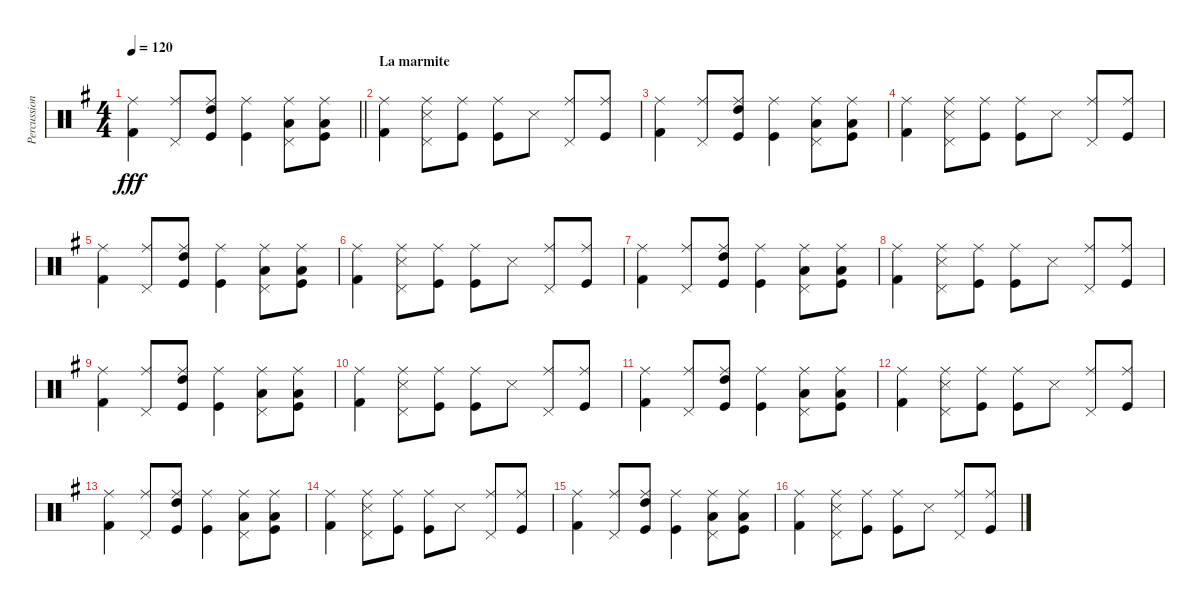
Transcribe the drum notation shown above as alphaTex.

\track ("Percussions" "Percussion") {instrument percussion}
\staff {score}
\articulation defaults
\ts (4 4)
\tempo 120
\clef neutral
\barLineRight lightlight
\ks g
("Ride (middle)" "Kick (hit) 2").4{dy fff} ("Ride (middle)" "Pedal Hi-Hat (hit)").8 ("Ride (middle)" "Kick (hit)" "High Tom (hit)").8 ("Ride (middle)" "Kick (hit)").4 ("Ride (middle)" "Low Tom (hit)" "Pedal Hi-Hat (hit)").8 ("Ride (middle)" "Kick (hit)" "Low Tom (hit)").8 |
\section ("" "La marmite")
("Ride (middle)" "Kick (hit) 2").4 ("Ride (middle)" "Pedal Hi-Hat (hit)" "Snare (side stick) 3").8 ("Ride (middle)" "Kick (hit)").8 ("Ride (middle)" "Kick (hit)").8 "Snare (side stick) 3".8 ("Ride (middle)" "Pedal Hi-Hat (hit)").8 ("Ride (middle)" "Kick (hit)").8 |
("Ride (middle)" "Kick (hit) 2").4 ("Ride (middle)" "Pedal Hi-Hat (hit)").8 ("Ride (middle)" "Kick (hit)" "High Tom (hit)").8 ("Ride (middle)" "Kick (hit)").4 ("Ride (middle)" "Low Tom (hit)" "Pedal Hi-Hat (hit)").8 ("Ride (middle)" "Kick (hit)" "Low Tom (hit)").8 |
("Ride (middle)" "Kick (hit) 2").4 ("Ride (middle)" "Pedal Hi-Hat (hit)" "Snare (side stick) 3").8 ("Ride (middle)" "Kick (hit)").8 ("Ride (middle)" "Kick (hit)").8 "Snare (side stick) 3".8 ("Ride (middle)" "Pedal Hi-Hat (hit)").8 ("Ride (middle)" "Kick (hit)").8 |
("Ride (middle)" "Kick (hit) 2").4 ("Ride (middle)" "Pedal Hi-Hat (hit)").8 ("Ride (middle)" "Kick (hit)" "High Tom (hit)").8 ("Ride (middle)" "Kick (hit)").4 ("Ride (middle)" "Low Tom (hit)" "Pedal Hi-Hat (hit)").8 ("Ride (middle)" "Kick (hit)" "Low Tom (hit)").8 |
("Ride (middle)" "Kick (hit) 2").4 ("Ride (middle)" "Pedal Hi-Hat (hit)" "Snare (side stick) 3").8 ("Ride (middle)" "Kick (hit)").8 ("Ride (middle)" "Kick (hit)").8 "Snare (side stick) 3".8 ("Ride (middle)" "Pedal Hi-Hat (hit)").8 ("Ride (middle)" "Kick (hit)").8 |
("Ride (middle)" "Kick (hit) 2").4 ("Ride (middle)" "Pedal Hi-Hat (hit)").8 ("Ride (middle)" "Kick (hit)" "High Tom (hit)").8 ("Ride (middle)" "Kick (hit)").4 ("Ride (middle)" "Low Tom (hit)" "Pedal Hi-Hat (hit)").8 ("Ride (middle)" "Kick (hit)" "Low Tom (hit)").8 |
("Ride (middle)" "Kick (hit) 2").4 ("Ride (middle)" "Pedal Hi-Hat (hit)" "Snare (side stick) 3").8 ("Ride (middle)" "Kick (hit)").8 ("Ride (middle)" "Kick (hit)").8 "Snare (side stick) 3".8 ("Ride (middle)" "Pedal Hi-Hat (hit)").8 ("Ride (middle)" "Kick (hit)").8 |
("Ride (middle)" "Kick (hit) 2").4 ("Ride (middle)" "Pedal Hi-Hat (hit)").8 ("Ride (middle)" "Kick (hit)" "High Tom (hit)").8 ("Ride (middle)" "Kick (hit)").4 ("Ride (middle)" "Low Tom (hit)" "Pedal Hi-Hat (hit)").8 ("Ride (middle)" "Kick (hit)" "Low Tom (hit)").8 |
("Ride (middle)" "Kick (hit) 2").4 ("Ride (middle)" "Pedal Hi-Hat (hit)" "Snare (side stick) 3").8 ("Ride (middle)" "Kick (hit)").8 ("Ride (middle)" "Kick (hit)").8 "Snare (side stick) 3".8 ("Ride (middle)" "Pedal Hi-Hat (hit)").8 ("Ride (middle)" "Kick (hit)").8 |
("Ride (middle)" "Kick (hit) 2").4 ("Ride (middle)" "Pedal Hi-Hat (hit)").8 ("Ride (middle)" "Kick (hit)" "High Tom (hit)").8 ("Ride (middle)" "Kick (hit)").4 ("Ride (middle)" "Low Tom (hit)" "Pedal Hi-Hat (hit)").8 ("Ride (middle)" "Kick (hit)" "Low Tom (hit)").8 |
("Ride (middle)" "Kick (hit) 2").4 ("Ride (middle)" "Pedal Hi-Hat (hit)" "Snare (side stick) 3").8 ("Ride (middle)" "Kick (hit)").8 ("Ride (middle)" "Kick (hit)").8 "Snare (side stick) 3".8 ("Ride (middle)" "Pedal Hi-Hat (hit)").8 ("Ride (middle)" "Kick (hit)").8 |
("Ride (middle)" "Kick (hit) 2").4 ("Ride (middle)" "Pedal Hi-Hat (hit)").8 ("Ride (middle)" "Kick (hit)" "High Tom (hit)").8 ("Ride (middle)" "Kick (hit)").4 ("Ride (middle)" "Low Tom (hit)" "Pedal Hi-Hat (hit)").8 ("Ride (middle)" "Kick (hit)" "Low Tom (hit)").8 |
("Ride (middle)" "Kick (hit) 2").4 ("Ride (middle)" "Pedal Hi-Hat (hit)" "Snare (side stick) 3").8 ("Ride (middle)" "Kick (hit)").8 ("Ride (middle)" "Kick (hit)").8 "Snare (side stick) 3".8 ("Ride (middle)" "Pedal Hi-Hat (hit)").8 ("Ride (middle)" "Kick (hit)").8 |
("Ride (middle)" "Kick (hit) 2").4 ("Ride (middle)" "Pedal Hi-Hat (hit)").8 ("Ride (middle)" "Kick (hit)" "High Tom (hit)").8 ("Ride (middle)" "Kick (hit)").4 ("Ride (middle)" "Low Tom (hit)" "Pedal Hi-Hat (hit)").8 ("Ride (middle)" "Kick (hit)" "Low Tom (hit)").8 |
("Ride (middle)" "Kick (hit) 2").4 ("Ride (middle)" "Pedal Hi-Hat (hit)" "Snare (side stick) 3").8 ("Ride (middle)" "Kick (hit)").8 ("Ride (middle)" "Kick (hit)").8 "Snare (side stick) 3".8 ("Ride (middle)" "Pedal Hi-Hat (hit)").8 ("Ride (middle)" "Kick (hit)").8
